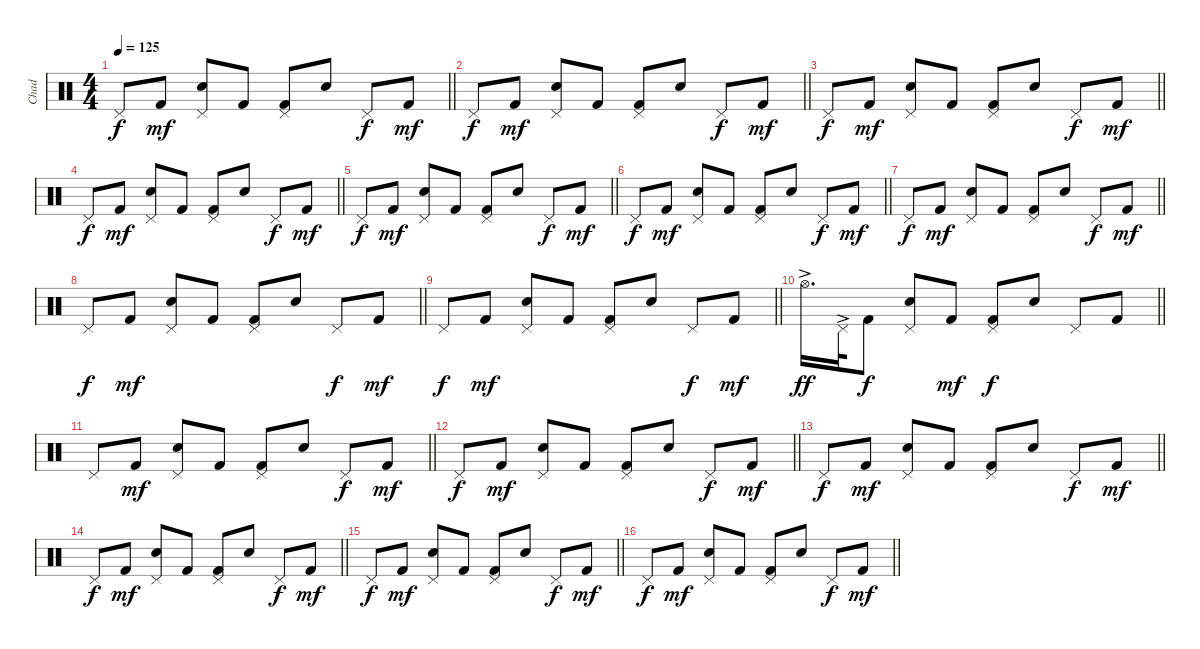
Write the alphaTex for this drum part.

\track ("Chad" "Chad") {instrument percussion}
\staff {score}
\articulation defaults
\ts (4 4)
\tempo 125
\clef neutral
\barLineRight lightlight
\ks c "Pedal Hi-Hat (hit)".8{dy f} "Kick (hit) 2".8{dy mf}
("Electric Snare (hit)" "Pedal Hi-Hat (hit)").8 "Kick (hit) 2".8 ("Kick (hit) 2" "Pedal Hi-Hat (hit)").8 "Electric Snare (hit)".8 "Pedal Hi-Hat (hit)".8{dy f} "Kick (hit) 2".8{dy mf} |
\barLineRight lightlight "Pedal Hi-Hat (hit)".8{dy f} "Kick (hit) 2".8{dy mf}
("Electric Snare (hit)" "Pedal Hi-Hat (hit)").8 "Kick (hit) 2".8 ("Kick (hit) 2" "Pedal Hi-Hat (hit)").8 "Electric Snare (hit)".8 "Pedal Hi-Hat (hit)".8{dy f} "Kick (hit) 2".8{dy mf} |
\barLineRight lightlight "Pedal Hi-Hat (hit)".8{dy f} "Kick (hit) 2".8{dy mf}
("Electric Snare (hit)" "Pedal Hi-Hat (hit)").8 "Kick (hit) 2".8 ("Kick (hit) 2" "Pedal Hi-Hat (hit)").8 "Electric Snare (hit)".8 "Pedal Hi-Hat (hit)".8{dy f} "Kick (hit) 2".8{dy mf} |
\barLineRight lightlight "Pedal Hi-Hat (hit)".8{dy f} "Kick (hit) 2".8{dy mf}
("Electric Snare (hit)" "Pedal Hi-Hat (hit)").8 "Kick (hit) 2".8 ("Kick (hit) 2" "Pedal Hi-Hat (hit)").8 "Electric Snare (hit)".8 "Pedal Hi-Hat (hit)".8{dy f} "Kick (hit) 2".8{dy mf} |
\barLineRight lightlight "Pedal Hi-Hat (hit)".8{dy f} "Kick (hit) 2".8{dy mf}
("Electric Snare (hit)" "Pedal Hi-Hat (hit)").8 "Kick (hit) 2".8 ("Kick (hit) 2" "Pedal Hi-Hat (hit)").8 "Electric Snare (hit)".8 "Pedal Hi-Hat (hit)".8{dy f} "Kick (hit) 2".8{dy mf} |
\barLineRight lightlight "Pedal Hi-Hat (hit)".8{dy f} "Kick (hit) 2".8{dy mf}
("Electric Snare (hit)" "Pedal Hi-Hat (hit)").8 "Kick (hit) 2".8 ("Kick (hit) 2" "Pedal Hi-Hat (hit)").8 "Electric Snare (hit)".8 "Pedal Hi-Hat (hit)".8{dy f} "Kick (hit) 2".8{dy mf} |
\barLineRight lightlight "Pedal Hi-Hat (hit)".8{dy f} "Kick (hit) 2".8{dy mf}
("Electric Snare (hit)" "Pedal Hi-Hat (hit)").8 "Kick (hit) 2".8 ("Kick (hit) 2" "Pedal Hi-Hat (hit)").8 "Electric Snare (hit)".8 "Pedal Hi-Hat (hit)".8{dy f} "Kick (hit) 2".8{dy mf} |
\barLineRight lightlight "Pedal Hi-Hat (hit)".8{dy f} "Kick (hit) 2".8{dy mf}
("Electric Snare (hit)" "Pedal Hi-Hat (hit)").8 "Kick (hit) 2".8 ("Kick (hit) 2" "Pedal Hi-Hat (hit)").8 "Electric Snare (hit)".8 "Pedal Hi-Hat (hit)".8{dy f} "Kick (hit) 2".8{dy mf} |
\barLineRight lightlight "Pedal Hi-Hat (hit)".8{dy f} "Kick (hit) 2".8{dy mf}
("Electric Snare (hit)" "Pedal Hi-Hat (hit)").8 "Kick (hit) 2".8 ("Kick (hit) 2" "Pedal Hi-Hat (hit)").8 "Electric Snare (hit)".8 "Pedal Hi-Hat (hit)".8{dy f} "Kick (hit) 2".8{dy mf} |
\barLineRight lightlight "Hi-Hat (open)"{ac}.16{d dy ff} "Pedal Hi-Hat (hit)"{ac}.32 "Kick (hit) 2".8{dy f}
("Electric Snare (hit)" "Pedal Hi-Hat (hit)").8 "Kick (hit) 2".8{dy mf} ("Kick (hit) 2" "Pedal Hi-Hat (hit)").8{dy f} "Electric Snare (hit)".8 "Pedal Hi-Hat (hit)".8 "Kick (hit) 2".8 |
\barLineRight lightlight "Pedal Hi-Hat (hit)".8 "Kick (hit) 2".8{dy mf}
("Electric Snare (hit)" "Pedal Hi-Hat (hit)").8 "Kick (hit) 2".8 ("Kick (hit) 2" "Pedal Hi-Hat (hit)").8 "Electric Snare (hit)".8 "Pedal Hi-Hat (hit)".8{dy f} "Kick (hit) 2".8{dy mf} |
\barLineRight lightlight "Pedal Hi-Hat (hit)".8{dy f} "Kick (hit) 2".8{dy mf}
("Electric Snare (hit)" "Pedal Hi-Hat (hit)").8 "Kick (hit) 2".8 ("Kick (hit) 2" "Pedal Hi-Hat (hit)").8 "Electric Snare (hit)".8 "Pedal Hi-Hat (hit)".8{dy f} "Kick (hit) 2".8{dy mf} |
\barLineRight lightlight "Pedal Hi-Hat (hit)".8{dy f} "Kick (hit) 2".8{dy mf}
("Electric Snare (hit)" "Pedal Hi-Hat (hit)").8 "Kick (hit) 2".8 ("Kick (hit) 2" "Pedal Hi-Hat (hit)").8 "Electric Snare (hit)".8 "Pedal Hi-Hat (hit)".8{dy f} "Kick (hit) 2".8{dy mf} |
\barLineRight lightlight "Pedal Hi-Hat (hit)".8{dy f} "Kick (hit) 2".8{dy mf}
("Electric Snare (hit)" "Pedal Hi-Hat (hit)").8 "Kick (hit) 2".8 ("Kick (hit) 2" "Pedal Hi-Hat (hit)").8 "Electric Snare (hit)".8 "Pedal Hi-Hat (hit)".8{dy f} "Kick (hit) 2".8{dy mf} |
\barLineRight lightlight "Pedal Hi-Hat (hit)".8{dy f} "Kick (hit) 2".8{dy mf}
("Electric Snare (hit)" "Pedal Hi-Hat (hit)").8 "Kick (hit) 2".8 ("Kick (hit) 2" "Pedal Hi-Hat (hit)").8 "Electric Snare (hit)".8 "Pedal Hi-Hat (hit)".8{dy f} "Kick (hit) 2".8{dy mf} |
\barLineRight lightlight "Pedal Hi-Hat (hit)".8{dy f} "Kick (hit) 2".8{dy mf}
("Electric Snare (hit)" "Pedal Hi-Hat (hit)").8 "Kick (hit) 2".8 ("Kick (hit) 2" "Pedal Hi-Hat (hit)").8 "Electric Snare (hit)".8 "Pedal Hi-Hat (hit)".8{dy f} "Kick (hit) 2".8{dy mf}
